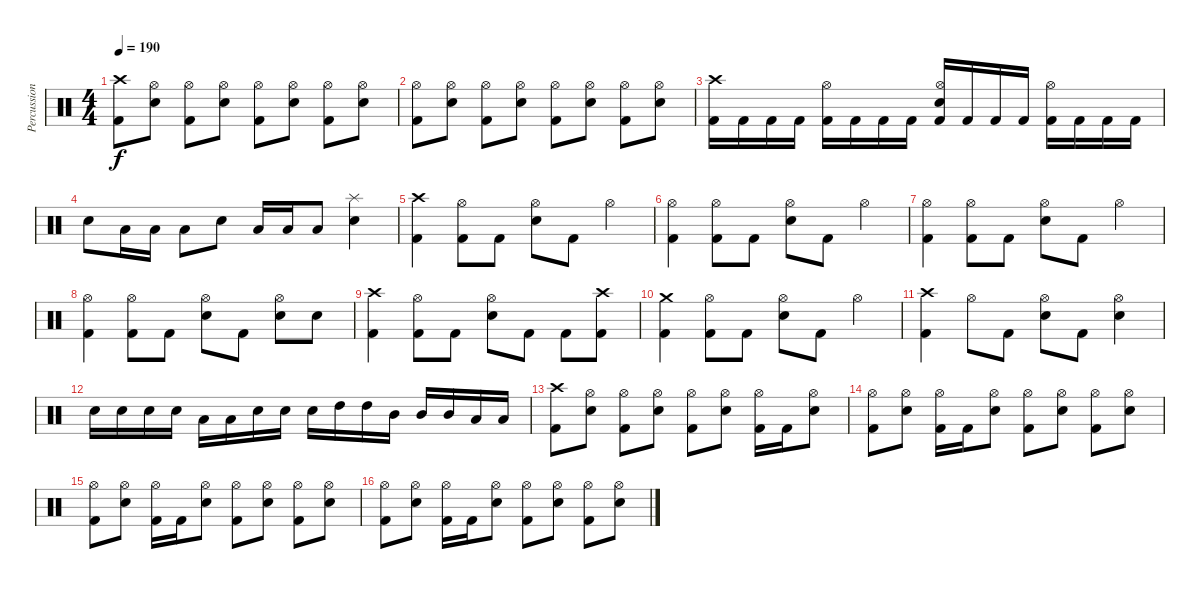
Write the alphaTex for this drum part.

\track ("Percussion" "Percussion") {instrument percussion}
\staff {score}
\articulation defaults
\ts (4 4)
\tempo 190
\clef neutral
\ks c
("Crash high (hit)" "Kick (hit) 2").8{dy f} ("Hi-Hat (open)" "Snare (hit) 2").8 ("Hi-Hat (open)" "Kick (hit) 2").8 ("Hi-Hat (open)" "Snare (hit) 2").8 ("Hi-Hat (open)" "Kick (hit) 2").8 ("Hi-Hat (open)" "Snare (hit) 2").8 ("Hi-Hat (open)" "Kick (hit) 2").8 ("Hi-Hat (open)" "Snare (hit) 2").8 |
("Hi-Hat (open)" "Kick (hit) 2").8 ("Hi-Hat (open)" "Snare (hit) 2").8 ("Hi-Hat (open)" "Kick (hit) 2").8 ("Hi-Hat (open)" "Snare (hit) 2").8 ("Hi-Hat (open)" "Kick (hit) 2").8 ("Hi-Hat (open)" "Snare (hit) 2").8 ("Hi-Hat (open)" "Kick (hit) 2").8 ("Hi-Hat (open)" "Snare (hit) 2").8 |
("Crash high (hit)" "Kick (hit) 2").16 "Kick (hit) 2".16 "Kick (hit) 2".16 "Kick (hit) 2".16 ("Hi-Hat (open)" "Kick (hit) 2").16 "Kick (hit) 2".16 "Kick (hit) 2".16 "Kick (hit) 2".16 ("Hi-Hat (open)" "Snare (hit) 2" "Kick (hit) 2").16 "Kick (hit) 2".16 "Kick (hit) 2".16 "Kick (hit) 2".16 ("Hi-Hat (open)" "Kick (hit) 2").16 "Kick (hit) 2".16 "Kick (hit) 2".16 "Kick (hit) 2".16 |
"Snare (hit) 2".8 "Low Tom (hit)".16 "Low Tom (hit)".16 "Low Tom (hit)".8 "Snare (hit) 2".8 "Low Tom (hit)".16 "Low Tom (hit)".16 "Low Tom (hit)".8 ("Splash (hit)" "Snare (hit) 2").4 |
("Crash high (hit)" "Kick (hit) 2").4 ("Hi-Hat (open)" "Kick (hit) 2").8 "Kick (hit) 2".8 ("Hi-Hat (open)" "Snare (hit) 2").8 "Kick (hit) 2".8 "Hi-Hat (open)".4 |
("Hi-Hat (open)" "Kick (hit) 2").4 ("Hi-Hat (open)" "Kick (hit) 2").8 "Kick (hit) 2".8 ("Hi-Hat (open)" "Snare (hit) 2").8 "Kick (hit) 2".8 "Hi-Hat (open)".4 |
("Hi-Hat (open)" "Kick (hit) 2").4 ("Hi-Hat (open)" "Kick (hit) 2").8 "Kick (hit) 2".8 ("Hi-Hat (open)" "Snare (hit) 2").8 "Kick (hit) 2".8 "Hi-Hat (open)".4 |
("Hi-Hat (open)" "Kick (hit) 2").4 ("Hi-Hat (open)" "Kick (hit) 2").8 "Kick (hit) 2".8 ("Hi-Hat (open)" "Snare (hit) 2").8 "Kick (hit) 2".8 ("Hi-Hat (open)" "Snare (hit) 2").8 "Snare (hit) 2".8 |
("Crash high (hit)" "Kick (hit) 2").4 ("Hi-Hat (open)" "Kick (hit) 2").8 "Kick (hit) 2".8 ("Hi-Hat (open)" "Snare (hit) 2").8 "Kick (hit) 2".8 "Kick (hit) 2".8 ("Crash high (hit)" "Kick (hit) 2").8 |
("Crash medium (hit)" "Kick (hit) 2").4 ("Hi-Hat (open)" "Kick (hit) 2").8 "Kick (hit) 2".8 ("Hi-Hat (open)" "Snare (hit) 2").8 "Kick (hit) 2".8 "Hi-Hat (open)".4 |
("Crash high (hit)" "Kick (hit) 2").4 "Hi-Hat (open)".8 "Kick (hit) 2".8 ("Hi-Hat (open)" "Snare (hit) 2").8 "Kick (hit) 2".8 ("Hi-Hat (open)" "Snare (hit) 2").4 |
"Snare (hit) 2".16 "Snare (hit) 2".16 "Snare (hit) 2".16 "Snare (hit) 2".16 "Low Tom (hit)".16 "Low Tom (hit)".16 "Snare (hit) 2".16 "Snare (hit) 2".16 "Snare (hit) 2".16 "High Tom (hit)".16 "High Tom (hit)".16 "Mid Tom (hit)".16 "Mid Tom (hit)".16 "Mid Tom (hit)".16 "Low Tom (hit)".16 "Low Tom (hit)".16 |
("Crash high (hit)" "Kick (hit) 2").8 ("Hi-Hat (open)" "Snare (hit) 2").8 ("Hi-Hat (open)" "Kick (hit) 2").8 ("Hi-Hat (open)" "Snare (hit) 2").8 ("Hi-Hat (open)" "Kick (hit) 2").8 ("Hi-Hat (open)" "Snare (hit) 2").8 ("Hi-Hat (open)" "Kick (hit) 2").16 "Kick (hit) 2".16 ("Hi-Hat (open)" "Snare (hit) 2").8 |
("Hi-Hat (open)" "Kick (hit) 2").8 ("Hi-Hat (open)" "Snare (hit) 2").8 ("Hi-Hat (open)" "Kick (hit) 2").16 "Kick (hit) 2".16 ("Hi-Hat (open)" "Snare (hit) 2").8 ("Hi-Hat (open)" "Kick (hit) 2").8 ("Hi-Hat (open)" "Snare (hit) 2").8 ("Hi-Hat (open)" "Kick (hit) 2").8 ("Hi-Hat (open)" "Snare (hit) 2").8 |
("Hi-Hat (open)" "Kick (hit) 2").8 ("Hi-Hat (open)" "Snare (hit) 2").8 ("Hi-Hat (open)" "Kick (hit) 2").16 "Kick (hit) 2".16 ("Hi-Hat (open)" "Snare (hit) 2").8 ("Hi-Hat (open)" "Kick (hit) 2").8 ("Hi-Hat (open)" "Snare (hit) 2").8 ("Hi-Hat (open)" "Kick (hit) 2").8 ("Hi-Hat (open)" "Snare (hit) 2").8 |
("Hi-Hat (open)" "Kick (hit) 2").8 ("Hi-Hat (open)" "Snare (hit) 2").8 ("Hi-Hat (open)" "Kick (hit) 2").16 "Kick (hit) 2".16 ("Hi-Hat (open)" "Snare (hit) 2").8 ("Hi-Hat (open)" "Kick (hit) 2").8 ("Hi-Hat (open)" "Snare (hit) 2").8 ("Hi-Hat (open)" "Kick (hit) 2").8 ("Hi-Hat (open)" "Snare (hit) 2").8
